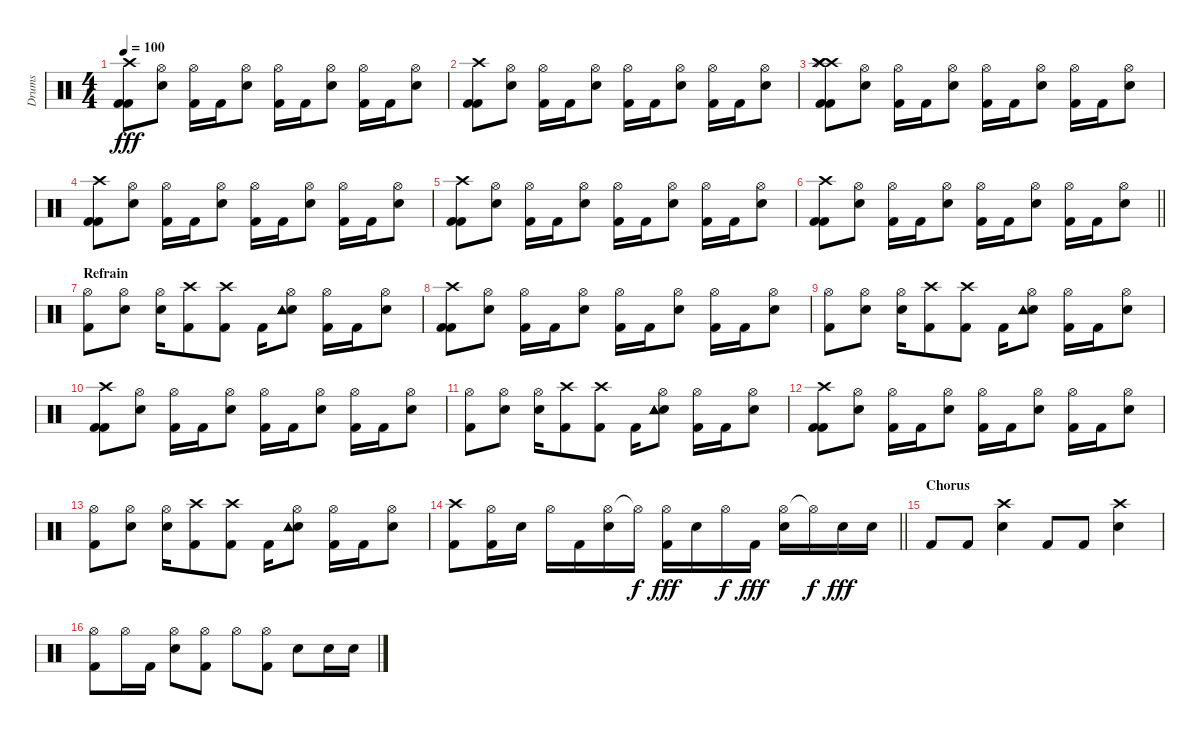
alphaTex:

\track ("Drums" "Drums") {instrument percussion}
\staff {score}
\articulation defaults
\ts (4 4)
\tempo 100
\clef neutral
\ks c
("Crash high (hit)" "Kick (hit) 2" "Kick (hit) 2").8{dy fff} ("Hi-Hat (open)" "Electric Snare (hit)").8 ("Hi-Hat (open)" "Kick (hit) 2").16 "Kick (hit) 2".16 ("Hi-Hat (open)" "Electric Snare (hit)").8 ("Hi-Hat (open)" "Kick (hit) 2").16 "Kick (hit) 2".16 ("Hi-Hat (open)" "Electric Snare (hit)").8 ("Hi-Hat (open)" "Kick (hit) 2").16 "Kick (hit) 2".16 ("Hi-Hat (open)" "Electric Snare (hit)").8 |
("Crash high (hit)" "Kick (hit) 2" "Kick (hit) 2").8 ("Hi-Hat (open)" "Electric Snare (hit)").8 ("Hi-Hat (open)" "Kick (hit) 2").16 "Kick (hit) 2".16 ("Hi-Hat (open)" "Electric Snare (hit)").8 ("Hi-Hat (open)" "Kick (hit) 2").16 "Kick (hit) 2".16 ("Hi-Hat (open)" "Electric Snare (hit)").8 ("Hi-Hat (open)" "Kick (hit) 2").16 "Kick (hit) 2".16 ("Hi-Hat (open)" "Electric Snare (hit)").8 |
("Crash high (hit)" "Crash high (hit)" "Splash (hit)" "Splash (hit)" "Kick (hit) 2" "Kick (hit) 2").8 ("Hi-Hat (open)" "Electric Snare (hit)").8 ("Hi-Hat (open)" "Kick (hit) 2").16 "Kick (hit) 2".16 ("Hi-Hat (open)" "Electric Snare (hit)").8 ("Hi-Hat (open)" "Kick (hit) 2").16 "Kick (hit) 2".16 ("Hi-Hat (open)" "Electric Snare (hit)").8 ("Hi-Hat (open)" "Kick (hit) 2").16 "Kick (hit) 2".16 ("Hi-Hat (open)" "Electric Snare (hit)").8 |
("Crash high (hit)" "Kick (hit) 2" "Kick (hit) 2").8 ("Hi-Hat (open)" "Electric Snare (hit)").8 ("Hi-Hat (open)" "Kick (hit) 2").16 "Kick (hit) 2".16 ("Hi-Hat (open)" "Electric Snare (hit)").8 ("Hi-Hat (open)" "Kick (hit) 2").16 "Kick (hit) 2".16 ("Hi-Hat (open)" "Electric Snare (hit)").8 ("Hi-Hat (open)" "Kick (hit) 2").16 "Kick (hit) 2".16 ("Hi-Hat (open)" "Electric Snare (hit)").8 |
("Crash high (hit)" "Kick (hit) 2" "Kick (hit) 2").8 ("Hi-Hat (open)" "Electric Snare (hit)").8 ("Hi-Hat (open)" "Kick (hit) 2").16 "Kick (hit) 2".16 ("Hi-Hat (open)" "Electric Snare (hit)").8 ("Hi-Hat (open)" "Kick (hit) 2").16 "Kick (hit) 2".16 ("Hi-Hat (open)" "Electric Snare (hit)").8 ("Hi-Hat (open)" "Kick (hit) 2").16 "Kick (hit) 2".16 ("Hi-Hat (open)" "Electric Snare (hit)").8 |
\barLineRight lightlight
("Crash high (hit)" "Kick (hit) 2" "Kick (hit) 2").8 ("Hi-Hat (open)" "Electric Snare (hit)").8 ("Hi-Hat (open)" "Kick (hit) 2").16 "Kick (hit) 2".16 ("Hi-Hat (open)" "Electric Snare (hit)").8 ("Hi-Hat (open)" "Kick (hit) 2").16 "Kick (hit) 2".16 ("Hi-Hat (open)" "Electric Snare (hit)").8 ("Hi-Hat (open)" "Kick (hit) 2").16 "Kick (hit) 2".16 ("Hi-Hat (open)" "Electric Snare (hit)").8 |
\section ("" "Refrain")
("Hi-Hat (open)" "Kick (hit) 2").8 ("Hi-Hat (open)" "Electric Snare (hit)").8 ("Hi-Hat (open)" "Electric Snare (hit)").16 ("Crash high (hit)" "Kick (hit) 2").8 ("Crash high (hit)" "Kick (hit) 2").8 "Kick (hit) 2".16 ("Hi-Hat (open)" "Electric Snare (hit)" "Tambourine (hit)" "Tambourine (hit)").8 ("Hi-Hat (open)" "Kick (hit) 2").16 "Kick (hit) 2".16 ("Hi-Hat (open)" "Electric Snare (hit)").8 |
("Crash high (hit)" "Kick (hit) 2" "Kick (hit) 2").8 ("Hi-Hat (open)" "Electric Snare (hit)").8 ("Hi-Hat (open)" "Kick (hit) 2").16 "Kick (hit) 2".16 ("Hi-Hat (open)" "Electric Snare (hit)").8 ("Hi-Hat (open)" "Kick (hit) 2").16 "Kick (hit) 2".16 ("Hi-Hat (open)" "Electric Snare (hit)").8 ("Hi-Hat (open)" "Kick (hit) 2").16 "Kick (hit) 2".16 ("Hi-Hat (open)" "Electric Snare (hit)").8 |
("Hi-Hat (open)" "Kick (hit) 2").8 ("Hi-Hat (open)" "Electric Snare (hit)").8 ("Hi-Hat (open)" "Electric Snare (hit)").16 ("Crash high (hit)" "Kick (hit) 2").8 ("Crash high (hit)" "Kick (hit) 2").8 "Kick (hit) 2".16 ("Hi-Hat (open)" "Electric Snare (hit)" "Tambourine (hit)" "Tambourine (hit)").8 ("Hi-Hat (open)" "Kick (hit) 2").16 "Kick (hit) 2".16 ("Hi-Hat (open)" "Electric Snare (hit)").8 |
("Crash high (hit)" "Kick (hit) 2" "Kick (hit) 2").8 ("Hi-Hat (open)" "Electric Snare (hit)").8 ("Hi-Hat (open)" "Kick (hit) 2").16 "Kick (hit) 2".16 ("Hi-Hat (open)" "Electric Snare (hit)").8 ("Hi-Hat (open)" "Kick (hit) 2").16 "Kick (hit) 2".16 ("Hi-Hat (open)" "Electric Snare (hit)").8 ("Hi-Hat (open)" "Kick (hit) 2").16 "Kick (hit) 2".16 ("Hi-Hat (open)" "Electric Snare (hit)").8 |
("Hi-Hat (open)" "Kick (hit) 2").8 ("Hi-Hat (open)" "Electric Snare (hit)").8 ("Hi-Hat (open)" "Electric Snare (hit)").16 ("Crash high (hit)" "Kick (hit) 2").8 ("Crash high (hit)" "Kick (hit) 2").8 "Kick (hit) 2".16 ("Hi-Hat (open)" "Electric Snare (hit)" "Tambourine (hit)" "Tambourine (hit)").8 ("Hi-Hat (open)" "Kick (hit) 2").16 "Kick (hit) 2".16 ("Hi-Hat (open)" "Electric Snare (hit)").8 |
("Crash high (hit)" "Kick (hit) 2" "Kick (hit) 2").8 ("Hi-Hat (open)" "Electric Snare (hit)").8 ("Hi-Hat (open)" "Kick (hit) 2").16 "Kick (hit) 2".16 ("Hi-Hat (open)" "Electric Snare (hit)").8 ("Hi-Hat (open)" "Kick (hit) 2").16 "Kick (hit) 2".16 ("Hi-Hat (open)" "Electric Snare (hit)").8 ("Hi-Hat (open)" "Kick (hit) 2").16 "Kick (hit) 2".16 ("Hi-Hat (open)" "Electric Snare (hit)").8 |
("Hi-Hat (open)" "Kick (hit) 2").8 ("Hi-Hat (open)" "Electric Snare (hit)").8 ("Hi-Hat (open)" "Electric Snare (hit)").16 ("Crash high (hit)" "Kick (hit) 2").8 ("Crash high (hit)" "Kick (hit) 2").8 "Kick (hit) 2".16 ("Hi-Hat (open)" "Electric Snare (hit)" "Tambourine (hit)" "Tambourine (hit)").8 ("Hi-Hat (open)" "Kick (hit) 2").16 "Kick (hit) 2".16 ("Hi-Hat (open)" "Electric Snare (hit)").8 |
\barLineRight lightlight
("Crash high (hit)" "Kick (hit) 2").8 ("Hi-Hat (open)" "Kick (hit) 2").16 "Electric Snare (hit)".16 "Hi-Hat (open)".16 "Kick (hit) 2".16 ("Hi-Hat (open)" "Electric Snare (hit)").16 "Hi-Hat (open)"{t}.16{dy f} ("Hi-Hat (open)" "Kick (hit) 2").16{dy fff} "Electric Snare (hit)".16 "Hi-Hat (open)".16{dy f} "Kick (hit) 2".16{dy fff} ("Hi-Hat (open)" "Electric Snare (hit)").16 "Hi-Hat (open)"{t}.16{dy f} "Electric Snare (hit)".16{dy fff} "Electric Snare (hit)".16 |
\section ("" "Chorus")
"Kick (hit) 2".8 "Kick (hit) 2".8 ("Crash high (hit)" "Electric Snare (hit)").4 "Kick (hit) 2".8 "Kick (hit) 2".8 ("Crash high (hit)" "Electric Snare (hit)").4 |
("Hi-Hat (open)" "Kick (hit) 2").8 "Hi-Hat (open)".16 "Kick (hit) 2".16 ("Hi-Hat (open)" "Electric Snare (hit)").8 ("Hi-Hat (open)" "Kick (hit) 2").8 "Hi-Hat (open)".8 ("Hi-Hat (open)" "Kick (hit) 2").8 "Electric Snare (hit)".8 "Electric Snare (hit)".16 "Electric Snare (hit)".16
